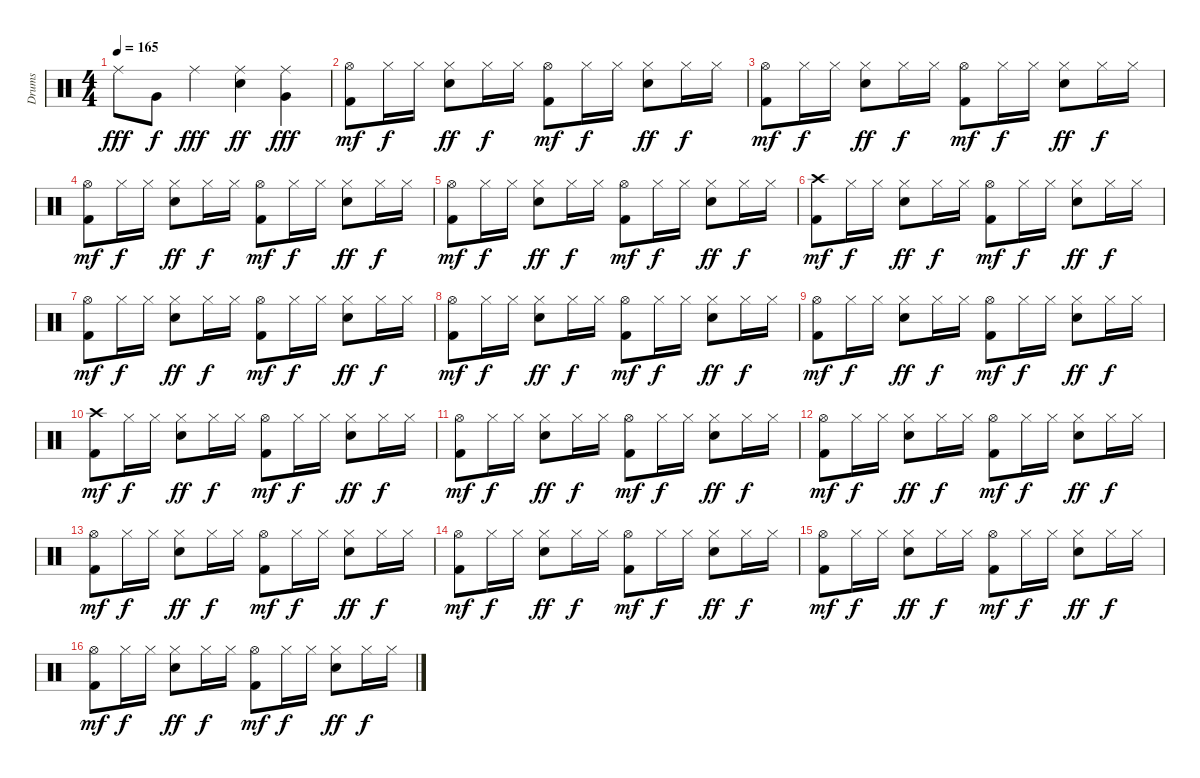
\track ("Drums" "Drums") {instrument percussion}
\staff {score}
\articulation defaults
\ts (4 4)
\tempo 165
\clef neutral
\ks c "Ride (middle)".8{dy fff} "Very Low Tom (hit)".8{dy f} "Ride (middle)".4{dy fff}
("Ride (middle)" "Electric Snare (hit)").4{dy ff} ("Ride (middle)" "Very Low Tom (hit)").4{dy fff} |
("Hi-Hat (open)" "Kick (hit) 2").8{dy mf} "Hi-Hat (closed)".16{dy f} "Hi-Hat (closed)".16 ("Hi-Hat (closed)" "Electric Snare (hit)").8{dy ff} "Hi-Hat (closed)".16{dy f} "Hi-Hat (closed)".16 ("Hi-Hat (open)" "Kick (hit) 2").8{dy mf} "Hi-Hat (closed)".16{dy f} "Hi-Hat (closed)".16 ("Hi-Hat (closed)" "Electric Snare (hit)").8{dy ff} "Hi-Hat (closed)".16{dy f} "Hi-Hat (closed)".16 |
("Hi-Hat (open)" "Kick (hit) 2").8{dy mf} "Hi-Hat (closed)".16{dy f} "Hi-Hat (closed)".16 ("Hi-Hat (closed)" "Electric Snare (hit)").8{dy ff} "Hi-Hat (closed)".16{dy f} "Hi-Hat (closed)".16 ("Hi-Hat (open)" "Kick (hit) 2").8{dy mf} "Hi-Hat (closed)".16{dy f} "Hi-Hat (closed)".16 ("Hi-Hat (closed)" "Electric Snare (hit)").8{dy ff} "Hi-Hat (closed)".16{dy f} "Hi-Hat (closed)".16 |
("Hi-Hat (open)" "Kick (hit) 2").8{dy mf} "Hi-Hat (closed)".16{dy f} "Hi-Hat (closed)".16 ("Hi-Hat (closed)" "Electric Snare (hit)").8{dy ff} "Hi-Hat (closed)".16{dy f} "Hi-Hat (closed)".16 ("Hi-Hat (open)" "Kick (hit) 2").8{dy mf} "Hi-Hat (closed)".16{dy f} "Hi-Hat (closed)".16 ("Hi-Hat (closed)" "Electric Snare (hit)").8{dy ff} "Hi-Hat (closed)".16{dy f} "Hi-Hat (closed)".16 |
("Hi-Hat (open)" "Kick (hit) 2").8{dy mf} "Hi-Hat (closed)".16{dy f} "Hi-Hat (closed)".16 ("Hi-Hat (closed)" "Electric Snare (hit)").8{dy ff} "Hi-Hat (closed)".16{dy f} "Hi-Hat (closed)".16 ("Hi-Hat (open)" "Kick (hit) 2").8{dy mf} "Hi-Hat (closed)".16{dy f} "Hi-Hat (closed)".16 ("Hi-Hat (closed)" "Electric Snare (hit)").8{dy ff} "Hi-Hat (closed)".16{dy f} "Hi-Hat (closed)".16 |
("Crash high (hit)" "Kick (hit) 2").8{dy mf} "Hi-Hat (closed)".16{dy f} "Hi-Hat (closed)".16 ("Hi-Hat (closed)" "Electric Snare (hit)").8{dy ff} "Hi-Hat (closed)".16{dy f} "Hi-Hat (closed)".16 ("Hi-Hat (open)" "Kick (hit) 2").8{dy mf} "Hi-Hat (closed)".16{dy f} "Hi-Hat (closed)".16 ("Hi-Hat (closed)" "Electric Snare (hit)").8{dy ff} "Hi-Hat (closed)".16{dy f} "Hi-Hat (closed)".16 |
("Hi-Hat (open)" "Kick (hit) 2").8{dy mf} "Hi-Hat (closed)".16{dy f} "Hi-Hat (closed)".16 ("Hi-Hat (closed)" "Electric Snare (hit)").8{dy ff} "Hi-Hat (closed)".16{dy f} "Hi-Hat (closed)".16 ("Hi-Hat (open)" "Kick (hit) 2").8{dy mf} "Hi-Hat (closed)".16{dy f} "Hi-Hat (closed)".16 ("Hi-Hat (closed)" "Electric Snare (hit)").8{dy ff} "Hi-Hat (closed)".16{dy f} "Hi-Hat (closed)".16 |
("Hi-Hat (open)" "Kick (hit) 2").8{dy mf} "Hi-Hat (closed)".16{dy f} "Hi-Hat (closed)".16 ("Hi-Hat (closed)" "Electric Snare (hit)").8{dy ff} "Hi-Hat (closed)".16{dy f} "Hi-Hat (closed)".16 ("Hi-Hat (open)" "Kick (hit) 2").8{dy mf} "Hi-Hat (closed)".16{dy f} "Hi-Hat (closed)".16 ("Hi-Hat (closed)" "Electric Snare (hit)").8{dy ff} "Hi-Hat (closed)".16{dy f} "Hi-Hat (closed)".16 |
("Hi-Hat (open)" "Kick (hit) 2").8{dy mf} "Hi-Hat (closed)".16{dy f} "Hi-Hat (closed)".16 ("Hi-Hat (closed)" "Electric Snare (hit)").8{dy ff} "Hi-Hat (closed)".16{dy f} "Hi-Hat (closed)".16 ("Hi-Hat (open)" "Kick (hit) 2").8{dy mf} "Hi-Hat (closed)".16{dy f} "Hi-Hat (closed)".16 ("Hi-Hat (closed)" "Electric Snare (hit)").8{dy ff} "Hi-Hat (closed)".16{dy f} "Hi-Hat (closed)".16 |
("Crash high (hit)" "Kick (hit) 2").8{dy mf} "Hi-Hat (closed)".16{dy f} "Hi-Hat (closed)".16 ("Hi-Hat (closed)" "Electric Snare (hit)").8{dy ff} "Hi-Hat (closed)".16{dy f} "Hi-Hat (closed)".16 ("Hi-Hat (open)" "Kick (hit) 2").8{dy mf} "Hi-Hat (closed)".16{dy f} "Hi-Hat (closed)".16 ("Hi-Hat (closed)" "Electric Snare (hit)").8{dy ff} "Hi-Hat (closed)".16{dy f} "Hi-Hat (closed)".16 |
("Hi-Hat (open)" "Kick (hit) 2").8{dy mf} "Hi-Hat (closed)".16{dy f} "Hi-Hat (closed)".16 ("Hi-Hat (closed)" "Electric Snare (hit)").8{dy ff} "Hi-Hat (closed)".16{dy f} "Hi-Hat (closed)".16 ("Hi-Hat (open)" "Kick (hit) 2").8{dy mf} "Hi-Hat (closed)".16{dy f} "Hi-Hat (closed)".16 ("Hi-Hat (closed)" "Electric Snare (hit)").8{dy ff} "Hi-Hat (closed)".16{dy f} "Hi-Hat (closed)".16 |
("Hi-Hat (open)" "Kick (hit) 2").8{dy mf} "Hi-Hat (closed)".16{dy f} "Hi-Hat (closed)".16 ("Hi-Hat (closed)" "Electric Snare (hit)").8{dy ff} "Hi-Hat (closed)".16{dy f} "Hi-Hat (closed)".16 ("Hi-Hat (open)" "Kick (hit) 2").8{dy mf} "Hi-Hat (closed)".16{dy f} "Hi-Hat (closed)".16 ("Hi-Hat (closed)" "Electric Snare (hit)").8{dy ff} "Hi-Hat (closed)".16{dy f} "Hi-Hat (closed)".16 |
("Hi-Hat (open)" "Kick (hit) 2").8{dy mf} "Hi-Hat (closed)".16{dy f} "Hi-Hat (closed)".16 ("Hi-Hat (closed)" "Electric Snare (hit)").8{dy ff} "Hi-Hat (closed)".16{dy f} "Hi-Hat (closed)".16 ("Hi-Hat (open)" "Kick (hit) 2").8{dy mf} "Hi-Hat (closed)".16{dy f} "Hi-Hat (closed)".16 ("Hi-Hat (closed)" "Electric Snare (hit)").8{dy ff} "Hi-Hat (closed)".16{dy f} "Hi-Hat (closed)".16 |
("Hi-Hat (open)" "Kick (hit) 2").8{dy mf} "Hi-Hat (closed)".16{dy f} "Hi-Hat (closed)".16 ("Hi-Hat (closed)" "Electric Snare (hit)").8{dy ff} "Hi-Hat (closed)".16{dy f} "Hi-Hat (closed)".16 ("Hi-Hat (open)" "Kick (hit) 2").8{dy mf} "Hi-Hat (closed)".16{dy f} "Hi-Hat (closed)".16 ("Hi-Hat (closed)" "Electric Snare (hit)").8{dy ff} "Hi-Hat (closed)".16{dy f} "Hi-Hat (closed)".16 |
("Hi-Hat (open)" "Kick (hit) 2").8{dy mf} "Hi-Hat (closed)".16{dy f} "Hi-Hat (closed)".16 ("Hi-Hat (closed)" "Electric Snare (hit)").8{dy ff} "Hi-Hat (closed)".16{dy f} "Hi-Hat (closed)".16 ("Hi-Hat (open)" "Kick (hit) 2").8{dy mf} "Hi-Hat (closed)".16{dy f} "Hi-Hat (closed)".16 ("Hi-Hat (closed)" "Electric Snare (hit)").8{dy ff} "Hi-Hat (closed)".16{dy f} "Hi-Hat (closed)".16 |
("Hi-Hat (open)" "Kick (hit) 2").8{dy mf} "Hi-Hat (closed)".16{dy f} "Hi-Hat (closed)".16 ("Hi-Hat (closed)" "Electric Snare (hit)").8{dy ff} "Hi-Hat (closed)".16{dy f} "Hi-Hat (closed)".16 ("Hi-Hat (open)" "Kick (hit) 2").8{dy mf} "Hi-Hat (closed)".16{dy f} "Hi-Hat (closed)".16 ("Hi-Hat (closed)" "Electric Snare (hit)").8{dy ff} "Hi-Hat (closed)".16{dy f} "Hi-Hat (closed)".16
